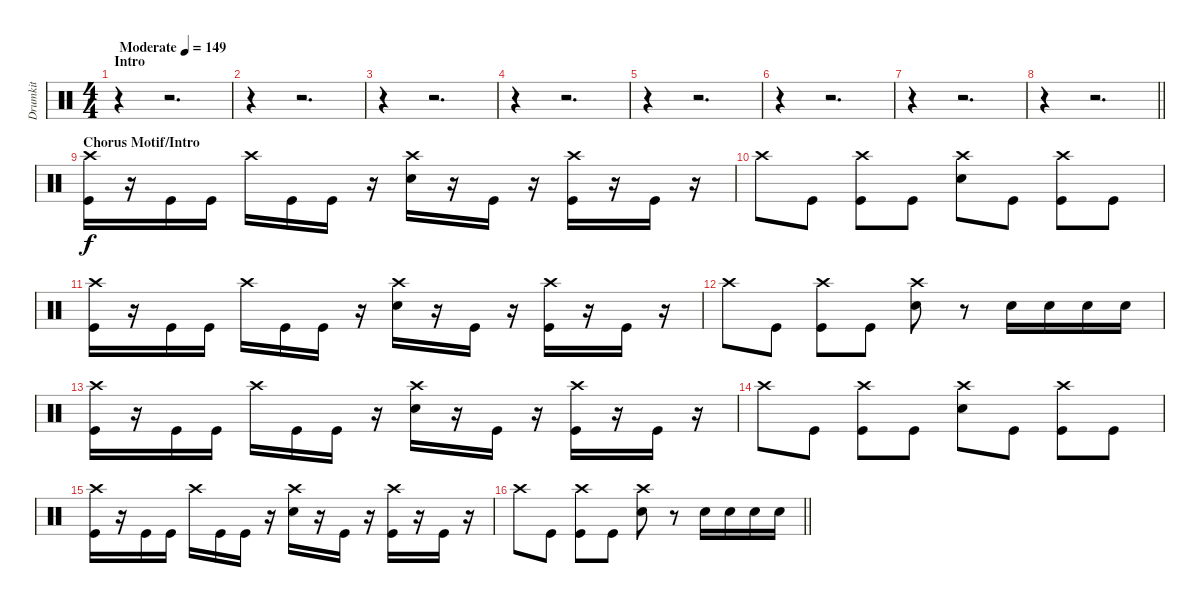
\track ("Drumkit" "Drumkit") {instrument percussion}
\staff {score}
\articulation defaults
\ts (4 4)
\section ("" "Intro")
\tempo (149 "Moderate")
\clef neutral
\ks c
r.4{dy f} r.2{d} |
r.4 r.2{d} |
r.4 r.2{d} |
r.4 r.2{d} |
r.4 r.2{d} |
r.4 r.2{d} |
r.4 r.2{d} |
\barLineRight lightlight
r.4 r.2{d} |
\section ("" "Chorus Motif/Intro")
("Crash high (hit)" "Kick (hit)").16 r.16 "Kick (hit)".16 "Kick (hit)".16 "Crash high (hit)".16 "Kick (hit)".16 "Kick (hit)".16 r.16 ("Crash high (hit)" "Snare (hit) 2").16 r.16 "Kick (hit)".16 r.16 ("Crash high (hit)" "Kick (hit)").16 r.16 "Kick (hit)".16 r.16 |
"Crash high (hit)".8 "Kick (hit)".8 ("Crash high (hit)" "Kick (hit)").8 "Kick (hit)".8 ("Crash high (hit)" "Snare (hit) 2").8 "Kick (hit)".8 ("Crash high (hit)" "Kick (hit)").8 "Kick (hit)".8 |
("Crash high (hit)" "Kick (hit)").16 r.16 "Kick (hit)".16 "Kick (hit)".16 "Crash high (hit)".16 "Kick (hit)".16 "Kick (hit)".16 r.16 ("Crash high (hit)" "Snare (hit) 2").16 r.16 "Kick (hit)".16 r.16 ("Crash high (hit)" "Kick (hit)").16 r.16 "Kick (hit)".16 r.16 |
"Crash high (hit)".8 "Kick (hit)".8 ("Crash high (hit)" "Kick (hit)").8 "Kick (hit)".8 ("Crash high (hit)" "Snare (hit) 2").8 r.8 "Snare (hit) 2".16 "Snare (hit) 2".16 "Snare (hit) 2".16 "Snare (hit) 2".16 |
("Crash high (hit)" "Kick (hit)").16 r.16 "Kick (hit)".16 "Kick (hit)".16 "Crash high (hit)".16 "Kick (hit)".16 "Kick (hit)".16 r.16 ("Crash high (hit)" "Snare (hit) 2").16 r.16 "Kick (hit)".16 r.16 ("Crash high (hit)" "Kick (hit)").16 r.16 "Kick (hit)".16 r.16 |
"Crash high (hit)".8 "Kick (hit)".8 ("Crash high (hit)" "Kick (hit)").8 "Kick (hit)".8 ("Crash high (hit)" "Snare (hit) 2").8 "Kick (hit)".8 ("Crash high (hit)" "Kick (hit)").8 "Kick (hit)".8 |
("Crash high (hit)" "Kick (hit)").16 r.16 "Kick (hit)".16 "Kick (hit)".16 "Crash high (hit)".16 "Kick (hit)".16 "Kick (hit)".16 r.16 ("Crash high (hit)" "Snare (hit) 2").16 r.16 "Kick (hit)".16 r.16 ("Crash high (hit)" "Kick (hit)").16 r.16 "Kick (hit)".16 r.16 |
\barLineRight lightlight "Crash high (hit)".8 "Kick (hit)".8
("Crash high (hit)" "Kick (hit)").8 "Kick (hit)".8 ("Crash high (hit)" "Snare (hit) 2").8 r.8 "Snare (hit) 2".16 "Snare (hit) 2".16 "Snare (hit) 2".16 "Snare (hit) 2".16
